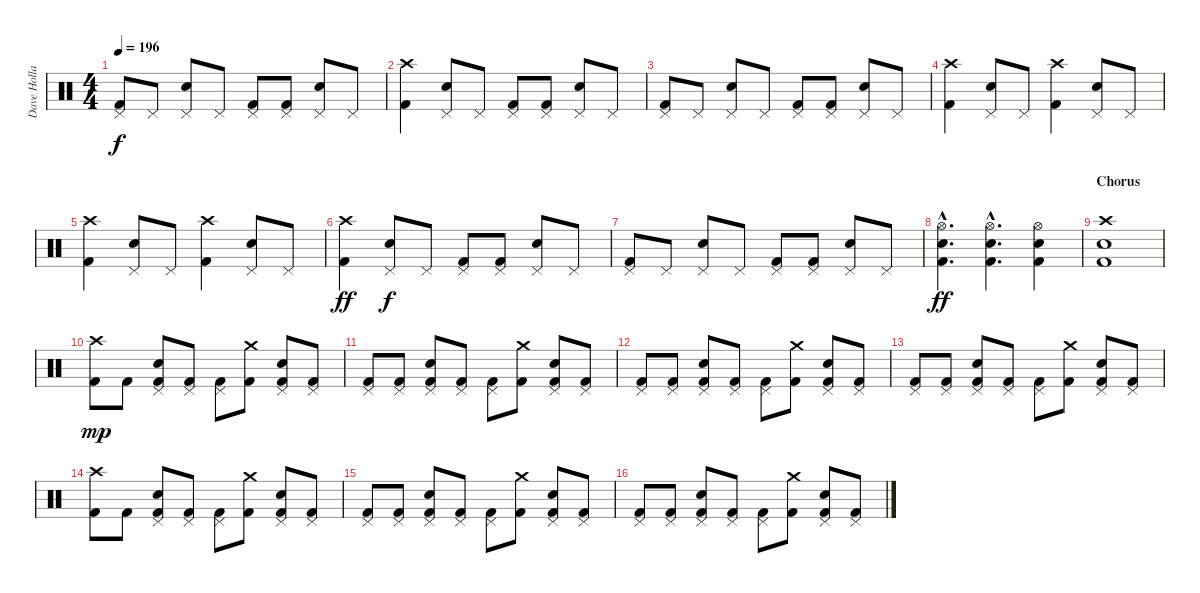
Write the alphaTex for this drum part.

\track ("Dave Holland" "Dave Holla") {instrument percussion}
\staff {score}
\articulation defaults
\ts (4 4)
\tempo 196
\clef neutral
\ks c
("Pedal Hi-Hat (hit)" "Kick (hit) 2").8{dy f} "Pedal Hi-Hat (hit)".8 ("Pedal Hi-Hat (hit)" "Snare (hit) 2").8 "Pedal Hi-Hat (hit)".8 ("Pedal Hi-Hat (hit)" "Kick (hit) 2").8 ("Pedal Hi-Hat (hit)" "Kick (hit) 2").8 ("Pedal Hi-Hat (hit)" "Snare (hit) 2").8 "Pedal Hi-Hat (hit)".8 |
("Crash high (hit)" "Kick (hit) 2").4 ("Pedal Hi-Hat (hit)" "Snare (hit) 2").8 "Pedal Hi-Hat (hit)".8 ("Pedal Hi-Hat (hit)" "Kick (hit) 2").8 ("Pedal Hi-Hat (hit)" "Kick (hit) 2").8 ("Pedal Hi-Hat (hit)" "Snare (hit) 2").8 "Pedal Hi-Hat (hit)".8 |
("Pedal Hi-Hat (hit)" "Kick (hit) 2").8 "Pedal Hi-Hat (hit)".8 ("Pedal Hi-Hat (hit)" "Snare (hit) 2").8 "Pedal Hi-Hat (hit)".8 ("Pedal Hi-Hat (hit)" "Kick (hit) 2").8 ("Pedal Hi-Hat (hit)" "Kick (hit) 2").8 ("Pedal Hi-Hat (hit)" "Snare (hit) 2").8 "Pedal Hi-Hat (hit)".8 |
("Crash high (hit)" "Kick (hit) 2").4 ("Pedal Hi-Hat (hit)" "Snare (hit) 2").8 "Pedal Hi-Hat (hit)".8 ("Crash high (hit)" "Kick (hit) 2").4 ("Pedal Hi-Hat (hit)" "Snare (hit) 2").8 "Pedal Hi-Hat (hit)".8 |
("Crash high (hit)" "Kick (hit) 2").4 ("Pedal Hi-Hat (hit)" "Snare (hit) 2").8 "Pedal Hi-Hat (hit)".8 ("Crash high (hit)" "Kick (hit) 2").4 ("Pedal Hi-Hat (hit)" "Snare (hit) 2").8 "Pedal Hi-Hat (hit)".8 |
("Crash high (hit)" "Kick (hit) 2").4{dy ff} ("Pedal Hi-Hat (hit)" "Snare (hit) 2").8{dy f} "Pedal Hi-Hat (hit)".8 ("Pedal Hi-Hat (hit)" "Kick (hit) 2").8 ("Pedal Hi-Hat (hit)" "Kick (hit) 2").8 ("Pedal Hi-Hat (hit)" "Snare (hit) 2").8 "Pedal Hi-Hat (hit)".8 |
("Pedal Hi-Hat (hit)" "Kick (hit) 2").8 "Pedal Hi-Hat (hit)".8 ("Pedal Hi-Hat (hit)" "Snare (hit) 2").8 "Pedal Hi-Hat (hit)".8 ("Pedal Hi-Hat (hit)" "Kick (hit) 2").8 ("Pedal Hi-Hat (hit)" "Kick (hit) 2").8 ("Pedal Hi-Hat (hit)" "Snare (hit) 2").8 "Pedal Hi-Hat (hit)".8 |
("Hi-Hat (open)"{hac} "Snare (hit) 2"{hac} "Kick (hit) 2"{hac}).4{d dy ff} ("Hi-Hat (open)"{hac} "Snare (hit) 2"{hac} "Kick (hit) 2"{hac}).4{d} ("Hi-Hat (open)" "Snare (hit) 2" "Kick (hit) 2").4 |
\section ("" "Chorus")
("Crash high (hit)" "Electric Snare (hit)" "Kick (hit) 2").1 |
("Crash high (hit)" "Kick (hit) 2").8{dy mp} "Kick (hit) 2".8 ("Pedal Hi-Hat (hit)" "Snare (hit) 2" "Kick (hit) 2").8 ("Pedal Hi-Hat (hit)" "Kick (hit) 2").8 ("Pedal Hi-Hat (hit)" "Kick (hit) 2").8 ("Crash medium (hit)" "Kick (hit) 2").8 ("Pedal Hi-Hat (hit)" "Snare (hit) 2" "Kick (hit) 2").8 ("Pedal Hi-Hat (hit)" "Kick (hit) 2").8 |
("Pedal Hi-Hat (hit)" "Kick (hit) 2").8 ("Pedal Hi-Hat (hit)" "Kick (hit) 2").8 ("Pedal Hi-Hat (hit)" "Snare (hit) 2" "Kick (hit) 2").8 ("Pedal Hi-Hat (hit)" "Kick (hit) 2").8 ("Pedal Hi-Hat (hit)" "Kick (hit) 2").8 ("Crash medium (hit)" "Kick (hit) 2").8 ("Pedal Hi-Hat (hit)" "Snare (hit) 2" "Kick (hit) 2").8 ("Pedal Hi-Hat (hit)" "Kick (hit) 2").8 |
("Pedal Hi-Hat (hit)" "Kick (hit) 2").8 ("Pedal Hi-Hat (hit)" "Kick (hit) 2").8 ("Pedal Hi-Hat (hit)" "Snare (hit) 2" "Kick (hit) 2").8 ("Pedal Hi-Hat (hit)" "Kick (hit) 2").8 ("Pedal Hi-Hat (hit)" "Kick (hit) 2").8 ("Crash medium (hit)" "Kick (hit) 2").8 ("Pedal Hi-Hat (hit)" "Snare (hit) 2" "Kick (hit) 2").8 ("Pedal Hi-Hat (hit)" "Kick (hit) 2").8 |
("Pedal Hi-Hat (hit)" "Kick (hit) 2").8 ("Pedal Hi-Hat (hit)" "Kick (hit) 2").8 ("Pedal Hi-Hat (hit)" "Snare (hit) 2" "Kick (hit) 2").8 ("Pedal Hi-Hat (hit)" "Kick (hit) 2").8 ("Pedal Hi-Hat (hit)" "Kick (hit) 2").8 ("Crash medium (hit)" "Kick (hit) 2").8 ("Pedal Hi-Hat (hit)" "Snare (hit) 2" "Kick (hit) 2").8 ("Pedal Hi-Hat (hit)" "Kick (hit) 2").8 |
("Crash high (hit)" "Kick (hit) 2").8 "Kick (hit) 2".8 ("Pedal Hi-Hat (hit)" "Snare (hit) 2" "Kick (hit) 2").8 ("Pedal Hi-Hat (hit)" "Kick (hit) 2").8 ("Pedal Hi-Hat (hit)" "Kick (hit) 2").8 ("Crash medium (hit)" "Kick (hit) 2").8 ("Pedal Hi-Hat (hit)" "Snare (hit) 2" "Kick (hit) 2").8 ("Pedal Hi-Hat (hit)" "Kick (hit) 2").8 |
("Pedal Hi-Hat (hit)" "Kick (hit) 2").8 ("Pedal Hi-Hat (hit)" "Kick (hit) 2").8 ("Pedal Hi-Hat (hit)" "Snare (hit) 2" "Kick (hit) 2").8 ("Pedal Hi-Hat (hit)" "Kick (hit) 2").8 ("Pedal Hi-Hat (hit)" "Kick (hit) 2").8 ("Crash medium (hit)" "Kick (hit) 2").8 ("Pedal Hi-Hat (hit)" "Snare (hit) 2" "Kick (hit) 2").8 ("Pedal Hi-Hat (hit)" "Kick (hit) 2").8 |
("Pedal Hi-Hat (hit)" "Kick (hit) 2").8 ("Pedal Hi-Hat (hit)" "Kick (hit) 2").8 ("Pedal Hi-Hat (hit)" "Snare (hit) 2" "Kick (hit) 2").8 ("Pedal Hi-Hat (hit)" "Kick (hit) 2").8 ("Pedal Hi-Hat (hit)" "Kick (hit) 2").8 ("Crash medium (hit)" "Kick (hit) 2").8 ("Pedal Hi-Hat (hit)" "Snare (hit) 2" "Kick (hit) 2").8 ("Pedal Hi-Hat (hit)" "Kick (hit) 2").8
